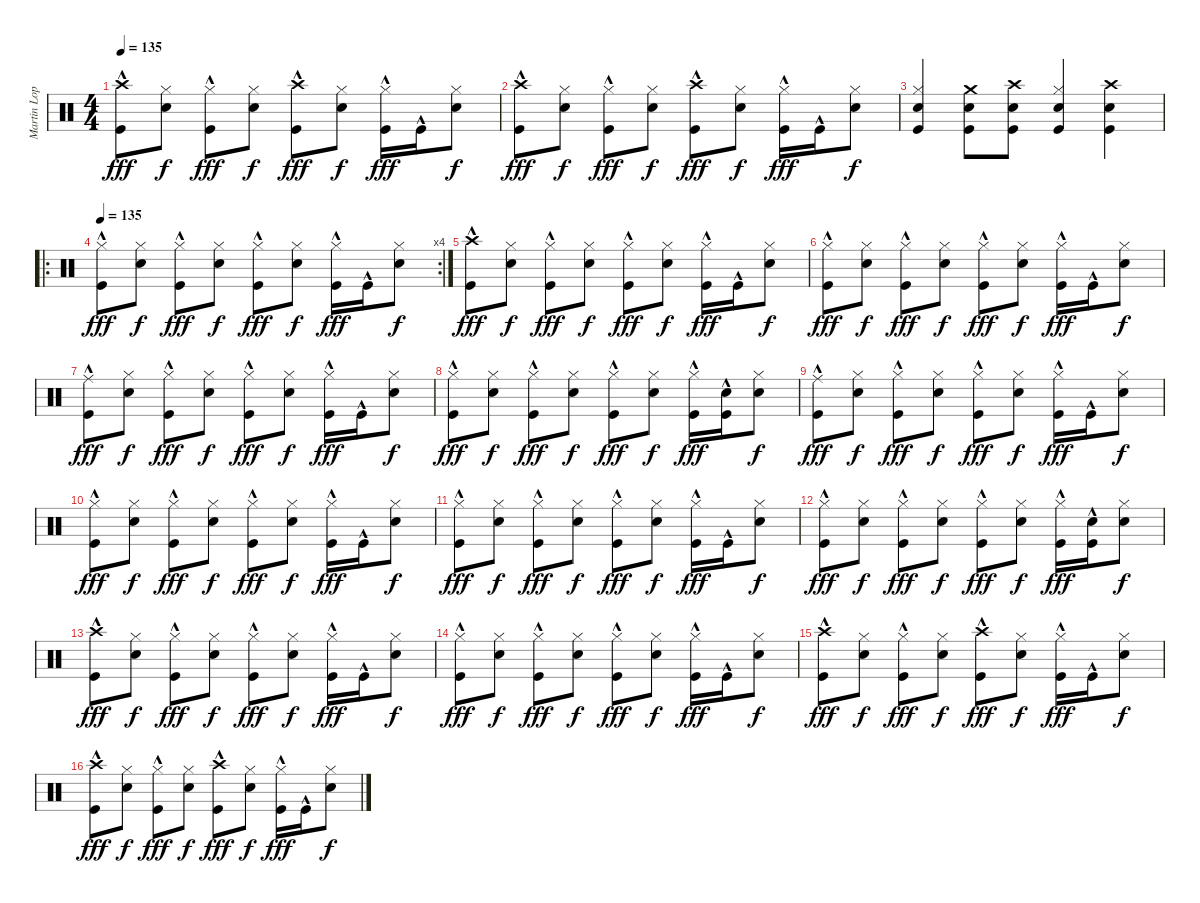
\track ("Martin Lopez" "Martin Lop") {instrument percussion}
\staff {score}
\articulation defaults
\ts (4 4)
\tempo 135
\clef neutral
\ks c
("Crash high (hit)" "Kick (hit)"{hac}).8{dy fff} ("Hi-Hat (closed)" "Electric Snare (hit)").8{dy f} ("Hi-Hat (closed)" "Kick (hit)"{hac}).8{dy fff} ("Hi-Hat (closed)" "Electric Snare (hit)").8{dy f} ("Crash high (hit)" "Kick (hit)"{hac}).8{dy fff} ("Hi-Hat (closed)" "Electric Snare (hit)").8{dy f} ("Hi-Hat (closed)" "Kick (hit)"{hac}).16{dy fff} "Kick (hit)"{hac}.16 ("Hi-Hat (closed)" "Electric Snare (hit)").8{dy f} |
("Crash high (hit)" "Kick (hit)"{hac}).8{dy fff} ("Hi-Hat (closed)" "Electric Snare (hit)").8{dy f} ("Hi-Hat (closed)" "Kick (hit)"{hac}).8{dy fff} ("Hi-Hat (closed)" "Electric Snare (hit)").8{dy f} ("Crash high (hit)" "Kick (hit)"{hac}).8{dy fff} ("Hi-Hat (closed)" "Electric Snare (hit)").8{dy f} ("Hi-Hat (closed)" "Kick (hit)"{hac}).16{dy fff} "Kick (hit)"{hac}.16 ("Hi-Hat (closed)" "Electric Snare (hit)").8{dy f} |
("Hi-Hat (closed)" "Electric Snare (hit)" "Kick (hit)").4 ("Crash medium (hit)" "Electric Snare (hit)" "Kick (hit)").8 ("Crash high (hit)" "Electric Snare (hit)" "Kick (hit)").8 ("Hi-Hat (closed)" "Electric Snare (hit)" "Kick (hit)").4 ("Crash high (hit)" "Electric Snare (hit)" "Kick (hit)").4 |
\ro
\rc 4
\tempo 140
\tempo 135
("Hi-Hat (closed)" "Kick (hit)"{hac}).8{dy fff} ("Hi-Hat (closed)" "Electric Snare (hit)").8{dy f} ("Hi-Hat (closed)" "Kick (hit)"{hac}).8{dy fff} ("Hi-Hat (closed)" "Electric Snare (hit)").8{dy f} ("Hi-Hat (closed)" "Kick (hit)"{hac}).8{dy fff} ("Hi-Hat (closed)" "Electric Snare (hit)").8{dy f} ("Hi-Hat (closed)" "Kick (hit)"{hac}).16{dy fff} "Kick (hit)"{hac}.16 ("Hi-Hat (closed)" "Electric Snare (hit)").8{dy f} |
("Crash high (hit)" "Kick (hit)"{hac}).8{dy fff} ("Hi-Hat (closed)" "Electric Snare (hit)").8{dy f} ("Hi-Hat (closed)" "Kick (hit)"{hac}).8{dy fff} ("Hi-Hat (closed)" "Electric Snare (hit)").8{dy f} ("Hi-Hat (closed)" "Kick (hit)"{hac}).8{dy fff} ("Hi-Hat (closed)" "Electric Snare (hit)").8{dy f} ("Hi-Hat (closed)" "Kick (hit)"{hac}).16{dy fff} "Kick (hit)"{hac}.16 ("Hi-Hat (closed)" "Electric Snare (hit)").8{dy f} |
("Hi-Hat (closed)" "Kick (hit)"{hac}).8{dy fff} ("Hi-Hat (closed)" "Electric Snare (hit)").8{dy f} ("Hi-Hat (closed)" "Kick (hit)"{hac}).8{dy fff} ("Hi-Hat (closed)" "Electric Snare (hit)").8{dy f} ("Hi-Hat (closed)" "Kick (hit)"{hac}).8{dy fff} ("Hi-Hat (closed)" "Electric Snare (hit)").8{dy f} ("Hi-Hat (closed)" "Kick (hit)"{hac}).16{dy fff} "Kick (hit)"{hac}.16 ("Hi-Hat (closed)" "Electric Snare (hit)").8{dy f} |
("Ride (middle)" "Kick (hit)"{hac}).8{dy fff} ("Hi-Hat (closed)" "Electric Snare (hit)").8{dy f} ("Hi-Hat (closed)" "Kick (hit)"{hac}).8{dy fff} ("Hi-Hat (closed)" "Electric Snare (hit)").8{dy f} ("Hi-Hat (closed)" "Kick (hit)"{hac}).8{dy fff} ("Hi-Hat (closed)" "Electric Snare (hit)").8{dy f} ("Hi-Hat (closed)" "Kick (hit)"{hac}).16{dy fff} "Kick (hit)"{hac}.16 ("Hi-Hat (closed)" "Electric Snare (hit)").8{dy f} |
("Hi-Hat (closed)" "Kick (hit)"{hac}).8{dy fff} ("Hi-Hat (closed)" "Electric Snare (hit)").8{dy f} ("Hi-Hat (closed)" "Kick (hit)"{hac}).8{dy fff} ("Hi-Hat (closed)" "Electric Snare (hit)").8{dy f} ("Hi-Hat (closed)" "Kick (hit)"{hac}).8{dy fff} ("Hi-Hat (closed)" "Electric Snare (hit)").8{dy f} ("Hi-Hat (closed)" "Kick (hit)"{hac}).16{dy fff} ("Electric Snare (hit)" "Kick (hit)"{hac}).16 ("Hi-Hat (closed)" "Electric Snare (hit)").8{dy f} |
("Ride (middle)" "Kick (hit)"{hac}).8{dy fff} ("Hi-Hat (closed)" "Electric Snare (hit)").8{dy f} ("Hi-Hat (closed)" "Kick (hit)"{hac}).8{dy fff} ("Hi-Hat (closed)" "Electric Snare (hit)").8{dy f} ("Hi-Hat (closed)" "Kick (hit)"{hac}).8{dy fff} ("Hi-Hat (closed)" "Electric Snare (hit)").8{dy f} ("Hi-Hat (closed)" "Kick (hit)"{hac}).16{dy fff} "Kick (hit)"{hac}.16 ("Hi-Hat (closed)" "Electric Snare (hit)").8{dy f} |
("Hi-Hat (closed)" "Kick (hit)"{hac}).8{dy fff} ("Hi-Hat (closed)" "Electric Snare (hit)").8{dy f} ("Hi-Hat (closed)" "Kick (hit)"{hac}).8{dy fff} ("Hi-Hat (closed)" "Electric Snare (hit)").8{dy f} ("Hi-Hat (closed)" "Kick (hit)"{hac}).8{dy fff} ("Hi-Hat (closed)" "Electric Snare (hit)").8{dy f} ("Hi-Hat (closed)" "Kick (hit)"{hac}).16{dy fff} "Kick (hit)"{hac}.16 ("Hi-Hat (closed)" "Electric Snare (hit)").8{dy f} |
("Hi-Hat (closed)" "Kick (hit)"{hac}).8{dy fff} ("Hi-Hat (closed)" "Electric Snare (hit)").8{dy f} ("Hi-Hat (closed)" "Kick (hit)"{hac}).8{dy fff} ("Hi-Hat (closed)" "Electric Snare (hit)").8{dy f} ("Hi-Hat (closed)" "Kick (hit)"{hac}).8{dy fff} ("Hi-Hat (closed)" "Electric Snare (hit)").8{dy f} ("Hi-Hat (closed)" "Kick (hit)"{hac}).16{dy fff} "Kick (hit)"{hac}.16 ("Hi-Hat (closed)" "Electric Snare (hit)").8{dy f} |
("Hi-Hat (closed)" "Kick (hit)"{hac}).8{dy fff} ("Hi-Hat (closed)" "Electric Snare (hit)").8{dy f} ("Hi-Hat (closed)" "Kick (hit)"{hac}).8{dy fff} ("Hi-Hat (closed)" "Electric Snare (hit)").8{dy f} ("Hi-Hat (closed)" "Kick (hit)"{hac}).8{dy fff} ("Hi-Hat (closed)" "Electric Snare (hit)").8{dy f} ("Hi-Hat (closed)" "Kick (hit)"{hac}).16{dy fff} ("Electric Snare (hit)" "Kick (hit)"{hac}).16 ("Hi-Hat (closed)" "Electric Snare (hit)").8{dy f} |
("Crash high (hit)" "Kick (hit)"{hac}).8{dy fff} ("Hi-Hat (closed)" "Electric Snare (hit)").8{dy f} ("Hi-Hat (closed)" "Kick (hit)"{hac}).8{dy fff} ("Hi-Hat (closed)" "Electric Snare (hit)").8{dy f} ("Hi-Hat (closed)" "Kick (hit)"{hac}).8{dy fff} ("Hi-Hat (closed)" "Electric Snare (hit)").8{dy f} ("Hi-Hat (closed)" "Kick (hit)"{hac}).16{dy fff} "Kick (hit)"{hac}.16 ("Hi-Hat (closed)" "Electric Snare (hit)").8{dy f} |
("Hi-Hat (closed)" "Kick (hit)"{hac}).8{dy fff} ("Hi-Hat (closed)" "Electric Snare (hit)").8{dy f} ("Hi-Hat (closed)" "Kick (hit)"{hac}).8{dy fff} ("Hi-Hat (closed)" "Electric Snare (hit)").8{dy f} ("Hi-Hat (closed)" "Kick (hit)"{hac}).8{dy fff} ("Hi-Hat (closed)" "Electric Snare (hit)").8{dy f} ("Hi-Hat (closed)" "Kick (hit)"{hac}).16{dy fff} "Kick (hit)"{hac}.16 ("Hi-Hat (closed)" "Electric Snare (hit)").8{dy f} |
("Crash high (hit)" "Kick (hit)"{hac}).8{dy fff} ("Hi-Hat (closed)" "Electric Snare (hit)").8{dy f} ("Hi-Hat (closed)" "Kick (hit)"{hac}).8{dy fff} ("Hi-Hat (closed)" "Electric Snare (hit)").8{dy f} ("Crash high (hit)" "Kick (hit)"{hac}).8{dy fff} ("Hi-Hat (closed)" "Electric Snare (hit)").8{dy f} ("Hi-Hat (closed)" "Kick (hit)"{hac}).16{dy fff} "Kick (hit)"{hac}.16 ("Hi-Hat (closed)" "Electric Snare (hit)").8{dy f} |
("Crash high (hit)" "Kick (hit)"{hac}).8{dy fff} ("Hi-Hat (closed)" "Electric Snare (hit)").8{dy f} ("Hi-Hat (closed)" "Kick (hit)"{hac}).8{dy fff} ("Hi-Hat (closed)" "Electric Snare (hit)").8{dy f} ("Crash high (hit)" "Kick (hit)"{hac}).8{dy fff} ("Hi-Hat (closed)" "Electric Snare (hit)").8{dy f} ("Hi-Hat (closed)" "Kick (hit)"{hac}).16{dy fff} "Kick (hit)"{hac}.16 ("Hi-Hat (closed)" "Electric Snare (hit)").8{dy f}
